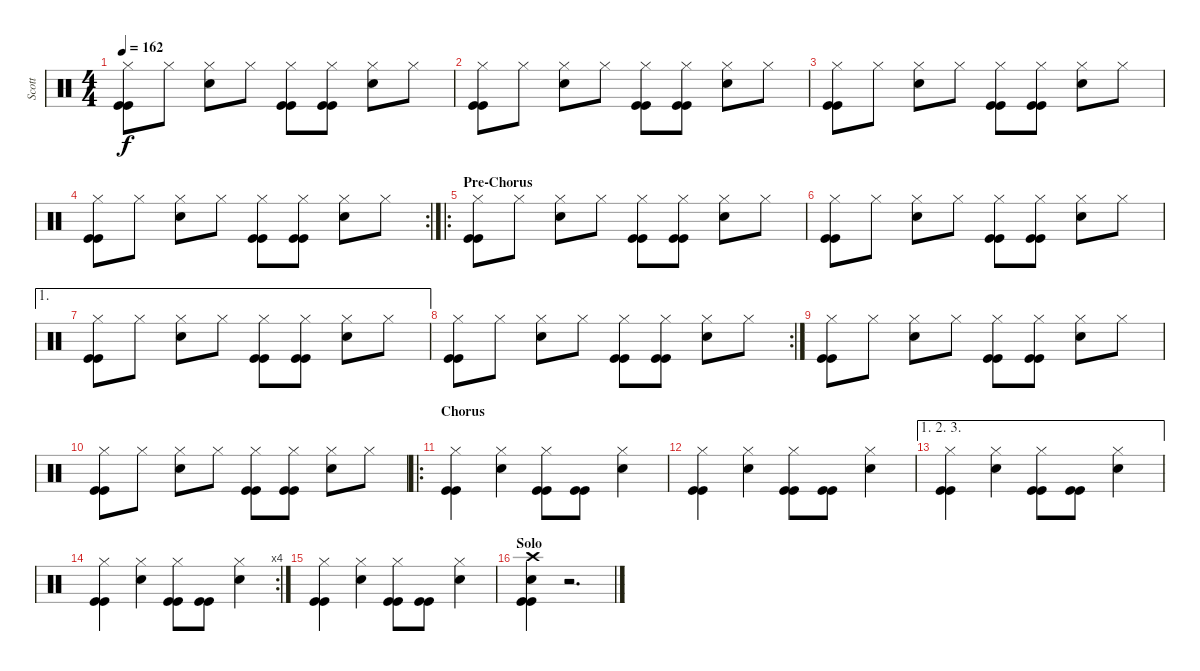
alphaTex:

\track ("Scott" "Scott") {instrument percussion}
\staff {score}
\articulation defaults
\ts (4 4)
\tempo 162
\clef neutral
\ks c
("Hi-Hat (closed)" "Kick (hit)" "Kick (hit)").8{dy f} "Hi-Hat (closed)".8 ("Hi-Hat (closed)" "Snare (hit) 2").8 "Hi-Hat (closed)".8 ("Hi-Hat (closed)" "Kick (hit)" "Kick (hit)").8 ("Hi-Hat (closed)" "Kick (hit)" "Kick (hit)").8 ("Hi-Hat (closed)" "Snare (hit) 2").8 "Hi-Hat (closed)".8 |
("Hi-Hat (closed)" "Kick (hit)" "Kick (hit)").8 "Hi-Hat (closed)".8 ("Hi-Hat (closed)" "Snare (hit) 2").8 "Hi-Hat (closed)".8 ("Hi-Hat (closed)" "Kick (hit)" "Kick (hit)").8 ("Hi-Hat (closed)" "Kick (hit)" "Kick (hit)").8 ("Hi-Hat (closed)" "Snare (hit) 2").8 "Hi-Hat (closed)".8 |
("Hi-Hat (closed)" "Kick (hit)" "Kick (hit)").8 "Hi-Hat (closed)".8 ("Hi-Hat (closed)" "Snare (hit) 2").8 "Hi-Hat (closed)".8 ("Hi-Hat (closed)" "Kick (hit)" "Kick (hit)").8 ("Hi-Hat (closed)" "Kick (hit)" "Kick (hit)").8 ("Hi-Hat (closed)" "Snare (hit) 2").8 "Hi-Hat (closed)".8 |
\rc 2
("Hi-Hat (closed)" "Kick (hit)" "Kick (hit)").8 "Hi-Hat (closed)".8 ("Hi-Hat (closed)" "Snare (hit) 2").8 "Hi-Hat (closed)".8 ("Hi-Hat (closed)" "Kick (hit)" "Kick (hit)").8 ("Hi-Hat (closed)" "Kick (hit)" "Kick (hit)").8 ("Hi-Hat (closed)" "Snare (hit) 2").8 "Hi-Hat (closed)".8 |
\ro
\section ("" "Pre-Chorus")
("Hi-Hat (closed)" "Kick (hit)" "Kick (hit)").8 "Hi-Hat (closed)".8 ("Hi-Hat (closed)" "Snare (hit) 2").8 "Hi-Hat (closed)".8 ("Hi-Hat (closed)" "Kick (hit)" "Kick (hit)").8 ("Hi-Hat (closed)" "Kick (hit)" "Kick (hit)").8 ("Hi-Hat (closed)" "Snare (hit) 2").8 "Hi-Hat (closed)".8 |
("Hi-Hat (closed)" "Kick (hit)" "Kick (hit)").8 "Hi-Hat (closed)".8 ("Hi-Hat (closed)" "Snare (hit) 2").8 "Hi-Hat (closed)".8 ("Hi-Hat (closed)" "Kick (hit)" "Kick (hit)").8 ("Hi-Hat (closed)" "Kick (hit)" "Kick (hit)").8 ("Hi-Hat (closed)" "Snare (hit) 2").8 "Hi-Hat (closed)".8 |
\ae 1
("Hi-Hat (closed)" "Kick (hit)" "Kick (hit)").8 "Hi-Hat (closed)".8 ("Hi-Hat (closed)" "Snare (hit) 2").8 "Hi-Hat (closed)".8 ("Hi-Hat (closed)" "Kick (hit)" "Kick (hit)").8 ("Hi-Hat (closed)" "Kick (hit)" "Kick (hit)").8 ("Hi-Hat (closed)" "Snare (hit) 2").8 "Hi-Hat (closed)".8 |
\rc 2
("Hi-Hat (closed)" "Kick (hit)" "Kick (hit)").8 "Hi-Hat (closed)".8 ("Hi-Hat (closed)" "Snare (hit) 2").8 "Hi-Hat (closed)".8 ("Hi-Hat (closed)" "Kick (hit)" "Kick (hit)").8 ("Hi-Hat (closed)" "Kick (hit)" "Kick (hit)").8 ("Hi-Hat (closed)" "Snare (hit) 2").8 "Hi-Hat (closed)".8 |
("Hi-Hat (closed)" "Kick (hit)" "Kick (hit)").8 "Hi-Hat (closed)".8 ("Hi-Hat (closed)" "Snare (hit) 2").8 "Hi-Hat (closed)".8 ("Hi-Hat (closed)" "Kick (hit)" "Kick (hit)").8 ("Hi-Hat (closed)" "Kick (hit)" "Kick (hit)").8 ("Hi-Hat (closed)" "Snare (hit) 2").8 "Hi-Hat (closed)".8 |
("Hi-Hat (closed)" "Kick (hit)" "Kick (hit)").8 "Hi-Hat (closed)".8 ("Hi-Hat (closed)" "Snare (hit) 2").8 "Hi-Hat (closed)".8 ("Hi-Hat (closed)" "Kick (hit)" "Kick (hit)").8 ("Hi-Hat (closed)" "Kick (hit)" "Kick (hit)").8 ("Hi-Hat (closed)" "Snare (hit) 2").8 "Hi-Hat (closed)".8 |
\ro
\section ("" "Chorus")
("Hi-Hat (closed)" "Kick (hit)" "Kick (hit)").4 ("Hi-Hat (closed)" "Snare (hit) 2").4 ("Hi-Hat (closed)" "Kick (hit)" "Kick (hit)").8 ("Kick (hit)" "Kick (hit)").8 ("Hi-Hat (closed)" "Snare (hit) 2").4 |
("Hi-Hat (closed)" "Kick (hit)" "Kick (hit)").4 ("Hi-Hat (closed)" "Snare (hit) 2").4 ("Hi-Hat (closed)" "Kick (hit)" "Kick (hit)").8 ("Kick (hit)" "Kick (hit)").8 ("Hi-Hat (closed)" "Snare (hit) 2").4 |
\ae (1 2 3)
("Hi-Hat (closed)" "Kick (hit)" "Kick (hit)").4 ("Hi-Hat (closed)" "Snare (hit) 2").4 ("Hi-Hat (closed)" "Kick (hit)" "Kick (hit)").8 ("Kick (hit)" "Kick (hit)").8 ("Hi-Hat (closed)" "Snare (hit) 2").4 |
\rc 4
("Hi-Hat (closed)" "Kick (hit)" "Kick (hit)").4 ("Hi-Hat (closed)" "Snare (hit) 2").4 ("Hi-Hat (closed)" "Kick (hit)" "Kick (hit)").8 ("Kick (hit)" "Kick (hit)").8 ("Hi-Hat (closed)" "Snare (hit) 2").4 |
("Hi-Hat (closed)" "Kick (hit)" "Kick (hit)").4 ("Hi-Hat (closed)" "Snare (hit) 2").4 ("Hi-Hat (closed)" "Kick (hit)" "Kick (hit)").8 ("Kick (hit)" "Kick (hit)").8 ("Hi-Hat (closed)" "Snare (hit) 2").4 |
\section ("" "Solo")
("Crash high (hit)" "Snare (hit) 2" "Kick (hit)" "Kick (hit)").4 r.2{d}
